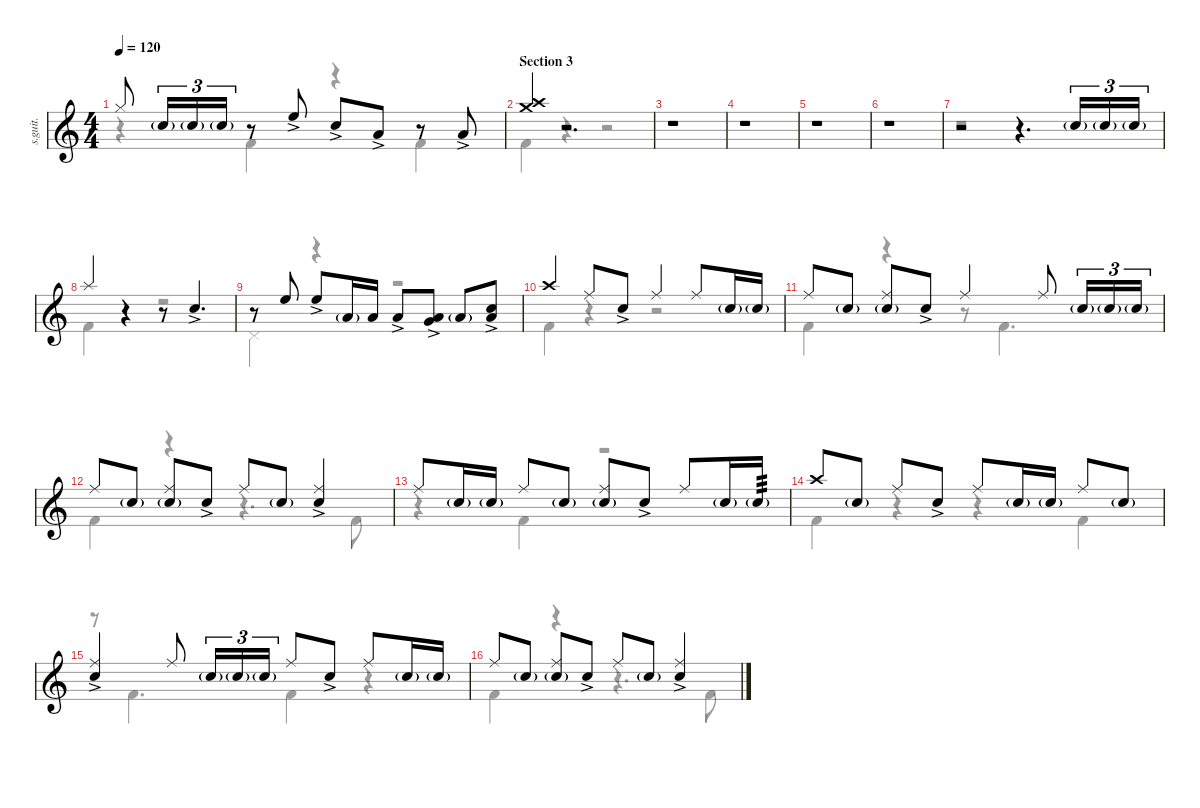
\defaultSystemsLayout 4
\hideDynamics
\bracketExtendMode nobrackets
\track ("Matt Halpern" "s.guit.") {instrument percussion}
\staff {score}
\articulation defaults
\voice
\ts (4 4)
\tempo 120
\clef g2
\ks c "Hi-Hat (closed)".8{lyrics (0 "") lyrics (1 "") lyrics (2 "") lyrics (3 "") lyrics (4 "") dy mf} "Snare (hit) 2"{g}.16{tu (3 2) lyrics (0 "") lyrics (1 "") lyrics (2 "") lyrics (3 "") lyrics (4 "")} "Snare (hit) 2"{g}.16{tu (3 2) lyrics (0 "") lyrics (1 "") lyrics (2 "") lyrics (3 "") lyrics (4 "")} "Snare (hit) 2"{g}.16{tu (3 2) lyrics (0 "") lyrics (1 "") lyrics (2 "") lyrics (3 "") lyrics (4 "")}
r.8 "High Floor Tom (hit)"{ac}.8{lyrics (0 "") lyrics (1 "") lyrics (2 "") lyrics (3 "") lyrics (4 "")} "Snare (hit) 2"{ac}.8{lyrics (0 "") lyrics (1 "") lyrics (2 "") lyrics (3 "") lyrics (4 "")} "Low Tom (hit)"{ac}.8{lyrics (0 "") lyrics (1 "") lyrics (2 "") lyrics (3 "") lyrics (4 "")} r.8 "Low Tom (hit)"{ac}.8{lyrics (0 "") lyrics (1 "") lyrics (2 "") lyrics (3 "") lyrics (4 "")} |
\section ("" "Section 3")
("Crash high (hit)" "Crash medium (hit)").4{lyrics (0 "") lyrics (1 "") lyrics (2 "") lyrics (3 "") lyrics (4 "")} r.2{d} |
r.1 |
r.1 |
r.1 |
r.1 |
r.2 r.4{d} "Snare (hit) 2"{g}.16{tu (3 2) lyrics (0 "") lyrics (1 "") lyrics (2 "") lyrics (3 "") lyrics (4 "")} "Snare (hit) 2"{g}.16{tu (3 2) lyrics (0 "") lyrics (1 "") lyrics (2 "") lyrics (3 "") lyrics (4 "")} "Snare (hit) 2"{g}.16{tu (3 2) lyrics (0 "") lyrics (1 "") lyrics (2 "") lyrics (3 "") lyrics (4 "")} |
"Splash (hit)".4{lyrics (0 "") lyrics (1 "") lyrics (2 "") lyrics (3 "") lyrics (4 "")} r.4 r.8 "Snare (hit) 2"{ac}.4{d lyrics (0 "") lyrics (1 "") lyrics (2 "") lyrics (3 "") lyrics (4 "")} |
r.8 "High Floor Tom (hit)".8{lyrics (0 "") lyrics (1 "") lyrics (2 "") lyrics (3 "") lyrics (4 "")} "High Floor Tom (hit)"{ac}.8{lyrics (0 "") lyrics (1 "") lyrics (2 "") lyrics (3 "") lyrics (4 "")} "Low Tom (hit)"{g}.16{lyrics (0 "") lyrics (1 "") lyrics (2 "") lyrics (3 "") lyrics (4 "")} "Low Tom (hit)".16{lyrics (0 "") lyrics (1 "") lyrics (2 "") lyrics (3 "") lyrics (4 "")} "Low Tom (hit)"{ac}.8{lyrics (0 "") lyrics (1 "") lyrics (2 "") lyrics (3 "") lyrics (4 "")} ("Low Tom (hit)"{ac} "Very Low Tom (hit)"{ac}).8{lyrics (0 "") lyrics (1 "") lyrics (2 "") lyrics (3 "") lyrics (4 "")} "Low Tom (hit)"{g}.8{lyrics (0 "") lyrics (1 "") lyrics (2 "") lyrics (3 "") lyrics (4 "")} ("Snare (hit) 2"{ac} "Low Tom (hit)"{ac}).8{lyrics (0 "") lyrics (1 "") lyrics (2 "") lyrics (3 "") lyrics (4 "")} |
"Crash high (hit)".4{lyrics (0 "") lyrics (1 "") lyrics (2 "") lyrics (3 "") lyrics (4 "")} "Ride (middle)".8{lyrics (0 "") lyrics (1 "") lyrics (2 "") lyrics (3 "") lyrics (4 "")} "Snare (hit) 2"{ac}.8{lyrics (0 "") lyrics (1 "") lyrics (2 "") lyrics (3 "") lyrics (4 "")} "Ride (middle)".4{lyrics (0 "") lyrics (1 "") lyrics (2 "") lyrics (3 "") lyrics (4 "")} "Ride (middle)".8{lyrics (0 "") lyrics (1 "") lyrics (2 "") lyrics (3 "") lyrics (4 "")} "Snare (hit) 2"{g}.16{lyrics (0 "") lyrics (1 "") lyrics (2 "") lyrics (3 "") lyrics (4 "")} "Snare (hit) 2"{g}.16{lyrics (0 "") lyrics (1 "") lyrics (2 "") lyrics (3 "") lyrics (4 "")} |
"Ride (middle)".8{lyrics (0 "") lyrics (1 "") lyrics (2 "") lyrics (3 "") lyrics (4 "")} "Snare (hit) 2"{g}.8{lyrics (0 "") lyrics (1 "") lyrics (2 "") lyrics (3 "") lyrics (4 "")} ("Snare (hit) 2"{g} "Ride (middle)").8{lyrics (0 "") lyrics (1 "") lyrics (2 "") lyrics (3 "") lyrics (4 "")} "Snare (hit) 2"{ac}.8{lyrics (0 "") lyrics (1 "") lyrics (2 "") lyrics (3 "") lyrics (4 "")} "Ride (middle)".4{lyrics (0 "") lyrics (1 "") lyrics (2 "") lyrics (3 "") lyrics (4 "")} "Ride (middle)".8{lyrics (0 "") lyrics (1 "") lyrics (2 "") lyrics (3 "") lyrics (4 "")} "Snare (hit) 2"{g}.16{tu (3 2) lyrics (0 "") lyrics (1 "") lyrics (2 "") lyrics (3 "") lyrics (4 "")} "Snare (hit) 2"{g}.16{tu (3 2) lyrics (0 "") lyrics (1 "") lyrics (2 "") lyrics (3 "") lyrics (4 "")} "Snare (hit) 2"{g}.16{tu (3 2) lyrics (0 "") lyrics (1 "") lyrics (2 "") lyrics (3 "") lyrics (4 "")} |
"Ride (middle)".8{lyrics (0 "") lyrics (1 "") lyrics (2 "") lyrics (3 "") lyrics (4 "")} "Snare (hit) 2"{g}.8{lyrics (0 "") lyrics (1 "") lyrics (2 "") lyrics (3 "") lyrics (4 "")} ("Ride (middle)" "Snare (hit) 2"{g}).8{lyrics (0 "") lyrics (1 "") lyrics (2 "") lyrics (3 "") lyrics (4 "")} "Snare (hit) 2"{ac}.8{lyrics (0 "") lyrics (1 "") lyrics (2 "") lyrics (3 "") lyrics (4 "")} "Ride (middle)".8{lyrics (0 "") lyrics (1 "") lyrics (2 "") lyrics (3 "") lyrics (4 "")} "Snare (hit) 2"{g}.8{lyrics (0 "") lyrics (1 "") lyrics (2 "") lyrics (3 "") lyrics (4 "")} ("Snare (hit) 2"{ac} "Ride (middle)").4{lyrics (0 "") lyrics (1 "") lyrics (2 "") lyrics (3 "") lyrics (4 "")} |
"Ride (middle)".8{lyrics (0 "") lyrics (1 "") lyrics (2 "") lyrics (3 "") lyrics (4 "")} "Snare (hit) 2"{g}.16{lyrics (0 "") lyrics (1 "") lyrics (2 "") lyrics (3 "") lyrics (4 "")} "Snare (hit) 2"{g}.16{lyrics (0 "") lyrics (1 "") lyrics (2 "") lyrics (3 "") lyrics (4 "")} "Ride (middle)".8{lyrics (0 "") lyrics (1 "") lyrics (2 "") lyrics (3 "") lyrics (4 "")} "Snare (hit) 2"{g}.8{lyrics (0 "") lyrics (1 "") lyrics (2 "") lyrics (3 "") lyrics (4 "")} ("Snare (hit) 2"{g} "Ride (middle)").8{lyrics (0 "") lyrics (1 "") lyrics (2 "") lyrics (3 "") lyrics (4 "")} "Snare (hit) 2"{ac}.8{lyrics (0 "") lyrics (1 "") lyrics (2 "") lyrics (3 "") lyrics (4 "")} "Ride (middle)".8{lyrics (0 "") lyrics (1 "") lyrics (2 "") lyrics (3 "") lyrics (4 "")} "Snare (hit) 2"{g}.16{lyrics (0 "") lyrics (1 "") lyrics (2 "") lyrics (3 "") lyrics (4 "")} "Snare (hit) 2"{g}.16{lyrics (0 "") lyrics (1 "") lyrics (2 "") lyrics (3 "") lyrics (4 "") tp 3} |
"Crash high (hit)".8{lyrics (0 "") lyrics (1 "") lyrics (2 "") lyrics (3 "") lyrics (4 "")} "Snare (hit) 2"{g}.8{lyrics (0 "") lyrics (1 "") lyrics (2 "") lyrics (3 "") lyrics (4 "")} "Ride (middle)".8{lyrics (0 "") lyrics (1 "") lyrics (2 "") lyrics (3 "") lyrics (4 "")} "Snare (hit) 2"{ac}.8{lyrics (0 "") lyrics (1 "") lyrics (2 "") lyrics (3 "") lyrics (4 "")} "Ride (middle)".8{lyrics (0 "") lyrics (1 "") lyrics (2 "") lyrics (3 "") lyrics (4 "")} "Snare (hit) 2"{g}.16{lyrics (0 "") lyrics (1 "") lyrics (2 "") lyrics (3 "") lyrics (4 "")} "Snare (hit) 2"{g}.16{lyrics (0 "") lyrics (1 "") lyrics (2 "") lyrics (3 "") lyrics (4 "")} "Ride (middle)".8{lyrics (0 "") lyrics (1 "") lyrics (2 "") lyrics (3 "") lyrics (4 "")} "Snare (hit) 2"{g}.8{lyrics (0 "") lyrics (1 "") lyrics (2 "") lyrics (3 "") lyrics (4 "")} |
("Snare (hit) 2"{ac} "Ride (middle)").4{lyrics (0 "") lyrics (1 "") lyrics (2 "") lyrics (3 "") lyrics (4 "")} "Ride (middle)".8{lyrics (0 "") lyrics (1 "") lyrics (2 "") lyrics (3 "") lyrics (4 "")} "Snare (hit) 2"{g}.16{tu (3 2) lyrics (0 "") lyrics (1 "") lyrics (2 "") lyrics (3 "") lyrics (4 "")} "Snare (hit) 2"{g}.16{tu (3 2) lyrics (0 "") lyrics (1 "") lyrics (2 "") lyrics (3 "") lyrics (4 "")} "Snare (hit) 2"{g}.16{tu (3 2) lyrics (0 "") lyrics (1 "") lyrics (2 "") lyrics (3 "") lyrics (4 "")} "Ride (middle)".8{lyrics (0 "") lyrics (1 "") lyrics (2 "") lyrics (3 "") lyrics (4 "")} "Snare (hit) 2"{ac}.8{lyrics (0 "") lyrics (1 "") lyrics (2 "") lyrics (3 "") lyrics (4 "")} "Ride (middle)".8{lyrics (0 "") lyrics (1 "") lyrics (2 "") lyrics (3 "") lyrics (4 "")} "Snare (hit) 2"{g}.16{lyrics (0 "") lyrics (1 "") lyrics (2 "") lyrics (3 "") lyrics (4 "")} "Snare (hit) 2"{g}.16{lyrics (0 "") lyrics (1 "") lyrics (2 "") lyrics (3 "") lyrics (4 "")} |
"Ride (middle)".8{lyrics (0 "") lyrics (1 "") lyrics (2 "") lyrics (3 "") lyrics (4 "")} "Snare (hit) 2"{g}.8{lyrics (0 "") lyrics (1 "") lyrics (2 "") lyrics (3 "") lyrics (4 "")} ("Ride (middle)" "Snare (hit) 2"{g}).8{lyrics (0 "") lyrics (1 "") lyrics (2 "") lyrics (3 "") lyrics (4 "")} "Snare (hit) 2"{ac}.8{lyrics (0 "") lyrics (1 "") lyrics (2 "") lyrics (3 "") lyrics (4 "")} "Ride (middle)".8{lyrics (0 "") lyrics (1 "") lyrics (2 "") lyrics (3 "") lyrics (4 "")} "Snare (hit) 2"{g}.8{lyrics (0 "") lyrics (1 "") lyrics (2 "") lyrics (3 "") lyrics (4 "")} ("Snare (hit) 2"{ac} "Ride (middle)").4{lyrics (0 "") lyrics (1 "") lyrics (2 "") lyrics (3 "") lyrics (4 "")}
\voice
\clef g2
\ottava regular
\simile none
\ks c
r.4{dy mf} "Kick (hit) 2".4{lyrics (0 "") lyrics (1 "") lyrics (2 "") lyrics (3 "") lyrics (4 "")} r.4 "Kick (hit) 2".4{lyrics (0 "") lyrics (1 "") lyrics (2 "") lyrics (3 "") lyrics (4 "")} |
"Kick (hit) 2".4{lyrics (0 "") lyrics (1 "") lyrics (2 "") lyrics (3 "") lyrics (4 "")} r.4 r.2 |
r.1 |
r.1 |
r.1 |
r.1 |
r.1 |
"Kick (hit) 2".4{lyrics (0 "") lyrics (1 "") lyrics (2 "") lyrics (3 "") lyrics (4 "")} r.4 r.2 |
"Pedal Hi-Hat (hit)".4{lyrics (0 "") lyrics (1 "") lyrics (2 "") lyrics (3 "") lyrics (4 "")} r.4 r.2 |
"Kick (hit) 2".4{lyrics (0 "") lyrics (1 "") lyrics (2 "") lyrics (3 "") lyrics (4 "")} r.4 r.2 |
"Kick (hit) 2".4{lyrics (0 "") lyrics (1 "") lyrics (2 "") lyrics (3 "") lyrics (4 "")} r.4 r.8 "Kick (hit) 2".4{d lyrics (0 "") lyrics (1 "") lyrics (2 "") lyrics (3 "") lyrics (4 "")} |
"Kick (hit) 2".4{lyrics (0 "") lyrics (1 "") lyrics (2 "") lyrics (3 "") lyrics (4 "")} r.4 r.4{d} "Kick (hit) 2".8{lyrics (0 "") lyrics (1 "") lyrics (2 "") lyrics (3 "") lyrics (4 "")} |
r.4 "Kick (hit) 2".4{lyrics (0 "") lyrics (1 "") lyrics (2 "") lyrics (3 "") lyrics (4 "")} r.2 |
"Kick (hit) 2".4{lyrics (0 "") lyrics (1 "") lyrics (2 "") lyrics (3 "") lyrics (4 "")} r.4 r.4 "Kick (hit) 2".4{lyrics (0 "") lyrics (1 "") lyrics (2 "") lyrics (3 "") lyrics (4 "")} |
r.8 "Kick (hit) 2".4{d lyrics (0 "") lyrics (1 "") lyrics (2 "") lyrics (3 "") lyrics (4 "")} "Kick (hit) 2".4{lyrics (0 "") lyrics (1 "") lyrics (2 "") lyrics (3 "") lyrics (4 "")} r.4 |
"Kick (hit) 2".4{lyrics (0 "") lyrics (1 "") lyrics (2 "") lyrics (3 "") lyrics (4 "")} r.4 r.4{d} "Kick (hit) 2".8{lyrics (0 "") lyrics (1 "") lyrics (2 "") lyrics (3 "") lyrics (4 "")}
